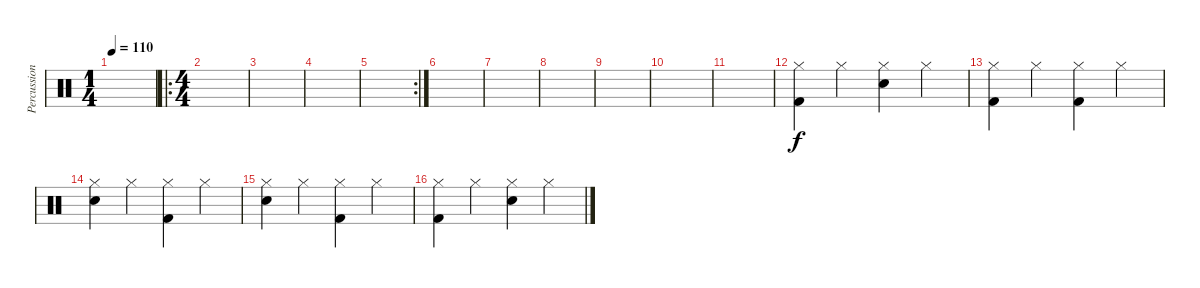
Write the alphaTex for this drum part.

\track ("Percussion" "Percussion") {instrument percussion}
\staff {score}
\articulation defaults
\ts (1 4)
\tempo 110
\clef neutral
\ks c
|
\ro
\ts (4 4)
|
|
|
\rc 2
|
|
|
|
|
|
|
("Hi-Hat (closed)" "Kick (hit) 2").4{volume 10} "Hi-Hat (closed)".4 ("Hi-Hat (closed)" "Snare (hit) 2").4 "Hi-Hat (closed)".4 |
("Hi-Hat (closed)" "Kick (hit) 2").4 "Hi-Hat (closed)".4 ("Hi-Hat (closed)" "Kick (hit) 2").4 "Hi-Hat (closed)".4 |
("Hi-Hat (closed)" "Snare (hit) 2").4 "Hi-Hat (closed)".4 ("Hi-Hat (closed)" "Kick (hit) 2").4 "Hi-Hat (closed)".4 |
("Hi-Hat (closed)" "Snare (hit) 2").4 "Hi-Hat (closed)".4 ("Hi-Hat (closed)" "Kick (hit) 2").4 "Hi-Hat (closed)".4 |
("Hi-Hat (closed)" "Kick (hit) 2").4 "Hi-Hat (closed)".4 ("Hi-Hat (closed)" "Snare (hit) 2").4 "Hi-Hat (closed)".4
